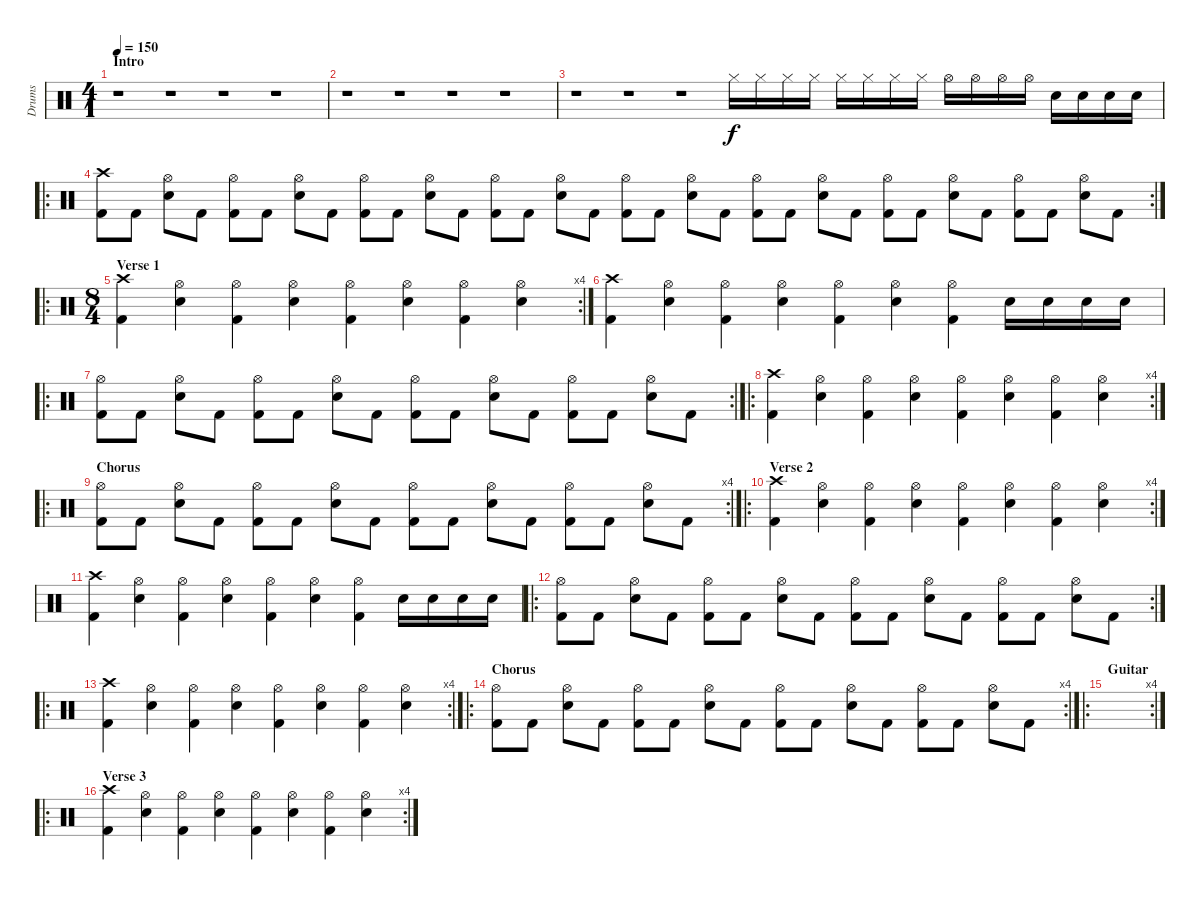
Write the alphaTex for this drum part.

\track ("Drums" "Drums") {instrument percussion}
\staff {score}
\articulation defaults
\ts (4 1)
\section ("" "Intro")
\tempo 150
\clef neutral
\ks c
r.1{dy f} r.1 r.1 r.1 |
r.1 r.1 r.1 r.1 |
r.1 r.1 r.1 "Hi-Hat (closed)".16 "Hi-Hat (closed)".16 "Hi-Hat (closed)".16 "Hi-Hat (closed)".16 "Hi-Hat (closed)".16 "Hi-Hat (closed)".16 "Hi-Hat (closed)".16 "Hi-Hat (closed)".16 "Hi-Hat (open)".16 "Hi-Hat (open)".16 "Hi-Hat (open)".16 "Hi-Hat (open)".16 "Electric Snare (hit)".16 "Electric Snare (hit)".16 "Electric Snare (hit)".16 "Electric Snare (hit)".16 |
\ro
\rc 2
("Crash high (hit)" "Kick (hit) 2").8 "Kick (hit) 2".8 ("Hi-Hat (open)" "Electric Snare (hit)").8 "Kick (hit) 2".8 ("Hi-Hat (open)" "Kick (hit) 2").8 "Kick (hit) 2".8 ("Hi-Hat (open)" "Electric Snare (hit)").8 "Kick (hit) 2".8 ("Hi-Hat (open)" "Kick (hit) 2").8 "Kick (hit) 2".8 ("Hi-Hat (open)" "Electric Snare (hit)").8 "Kick (hit) 2".8 ("Hi-Hat (open)" "Kick (hit) 2").8 "Kick (hit) 2".8 ("Hi-Hat (open)" "Electric Snare (hit)").8 "Kick (hit) 2".8 ("Hi-Hat (open)" "Kick (hit) 2").8 "Kick (hit) 2".8 ("Hi-Hat (open)" "Electric Snare (hit)").8 "Kick (hit) 2".8 ("Hi-Hat (open)" "Kick (hit) 2").8 "Kick (hit) 2".8 ("Hi-Hat (open)" "Electric Snare (hit)").8 "Kick (hit) 2".8 ("Hi-Hat (open)" "Kick (hit) 2").8 "Kick (hit) 2".8 ("Hi-Hat (open)" "Electric Snare (hit)").8 "Kick (hit) 2".8 ("Hi-Hat (open)" "Kick (hit) 2").8 "Kick (hit) 2".8 ("Hi-Hat (open)" "Electric Snare (hit)").8 "Kick (hit) 2".8 |
\ro
\rc 4
\ts (8 4)
\section ("" "Verse 1")
("Crash high (hit)" "Kick (hit) 2").4 ("Hi-Hat (open)" "Electric Snare (hit)").4 ("Hi-Hat (open)" "Kick (hit) 2").4 ("Hi-Hat (open)" "Electric Snare (hit)").4 ("Hi-Hat (open)" "Kick (hit) 2").4 ("Hi-Hat (open)" "Electric Snare (hit)").4 ("Hi-Hat (open)" "Kick (hit) 2").4 ("Hi-Hat (open)" "Electric Snare (hit)").4 |
("Crash high (hit)" "Kick (hit) 2").4 ("Hi-Hat (open)" "Electric Snare (hit)").4 ("Hi-Hat (open)" "Kick (hit) 2").4 ("Hi-Hat (open)" "Electric Snare (hit)").4 ("Hi-Hat (open)" "Kick (hit) 2").4 ("Hi-Hat (open)" "Electric Snare (hit)").4 ("Hi-Hat (open)" "Kick (hit) 2").4 "Electric Snare (hit)".16 "Electric Snare (hit)".16 "Electric Snare (hit)".16 "Electric Snare (hit)".16 |
\ro
\rc 2
("Hi-Hat (open)" "Kick (hit) 2").8 "Kick (hit) 2".8 ("Hi-Hat (open)" "Electric Snare (hit)").8 "Kick (hit) 2".8 ("Hi-Hat (open)" "Kick (hit) 2").8 "Kick (hit) 2".8 ("Hi-Hat (open)" "Electric Snare (hit)").8 "Kick (hit) 2".8 ("Hi-Hat (open)" "Kick (hit) 2").8 "Kick (hit) 2".8 ("Hi-Hat (open)" "Electric Snare (hit)").8 "Kick (hit) 2".8 ("Hi-Hat (open)" "Kick (hit) 2").8 "Kick (hit) 2".8 ("Hi-Hat (open)" "Electric Snare (hit)").8 "Kick (hit) 2".8 |
\ro
\rc 4
("Crash high (hit)" "Kick (hit) 2").4 ("Hi-Hat (open)" "Electric Snare (hit)").4 ("Hi-Hat (open)" "Kick (hit) 2").4 ("Hi-Hat (open)" "Electric Snare (hit)").4 ("Hi-Hat (open)" "Kick (hit) 2").4 ("Hi-Hat (open)" "Electric Snare (hit)").4 ("Hi-Hat (open)" "Kick (hit) 2").4 ("Hi-Hat (open)" "Electric Snare (hit)").4 |
\ro
\rc 4
\section ("" "Chorus")
("Hi-Hat (open)" "Kick (hit) 2").8 "Kick (hit) 2".8 ("Hi-Hat (open)" "Electric Snare (hit)").8 "Kick (hit) 2".8 ("Hi-Hat (open)" "Kick (hit) 2").8 "Kick (hit) 2".8 ("Hi-Hat (open)" "Electric Snare (hit)").8 "Kick (hit) 2".8 ("Hi-Hat (open)" "Kick (hit) 2").8 "Kick (hit) 2".8 ("Hi-Hat (open)" "Electric Snare (hit)").8 "Kick (hit) 2".8 ("Hi-Hat (open)" "Kick (hit) 2").8 "Kick (hit) 2".8 ("Hi-Hat (open)" "Electric Snare (hit)").8 "Kick (hit) 2".8 |
\ro
\rc 4
\section ("" "Verse 2")
("Crash high (hit)" "Kick (hit) 2").4 ("Hi-Hat (open)" "Electric Snare (hit)").4 ("Hi-Hat (open)" "Kick (hit) 2").4 ("Hi-Hat (open)" "Electric Snare (hit)").4 ("Hi-Hat (open)" "Kick (hit) 2").4 ("Hi-Hat (open)" "Electric Snare (hit)").4 ("Hi-Hat (open)" "Kick (hit) 2").4 ("Hi-Hat (open)" "Electric Snare (hit)").4 |
("Crash high (hit)" "Kick (hit) 2").4 ("Hi-Hat (open)" "Electric Snare (hit)").4 ("Hi-Hat (open)" "Kick (hit) 2").4 ("Hi-Hat (open)" "Electric Snare (hit)").4 ("Hi-Hat (open)" "Kick (hit) 2").4 ("Hi-Hat (open)" "Electric Snare (hit)").4 ("Hi-Hat (open)" "Kick (hit) 2").4 "Electric Snare (hit)".16 "Electric Snare (hit)".16 "Electric Snare (hit)".16 "Electric Snare (hit)".16 |
\ro
\rc 2
("Hi-Hat (open)" "Kick (hit) 2").8 "Kick (hit) 2".8 ("Hi-Hat (open)" "Electric Snare (hit)").8 "Kick (hit) 2".8 ("Hi-Hat (open)" "Kick (hit) 2").8 "Kick (hit) 2".8 ("Hi-Hat (open)" "Electric Snare (hit)").8 "Kick (hit) 2".8 ("Hi-Hat (open)" "Kick (hit) 2").8 "Kick (hit) 2".8 ("Hi-Hat (open)" "Electric Snare (hit)").8 "Kick (hit) 2".8 ("Hi-Hat (open)" "Kick (hit) 2").8 "Kick (hit) 2".8 ("Hi-Hat (open)" "Electric Snare (hit)").8 "Kick (hit) 2".8 |
\ro
\rc 4
("Crash high (hit)" "Kick (hit) 2").4 ("Hi-Hat (open)" "Electric Snare (hit)").4 ("Hi-Hat (open)" "Kick (hit) 2").4 ("Hi-Hat (open)" "Electric Snare (hit)").4 ("Hi-Hat (open)" "Kick (hit) 2").4 ("Hi-Hat (open)" "Electric Snare (hit)").4 ("Hi-Hat (open)" "Kick (hit) 2").4 ("Hi-Hat (open)" "Electric Snare (hit)").4 |
\ro
\rc 4
\section ("" "Chorus")
("Hi-Hat (open)" "Kick (hit) 2").8 "Kick (hit) 2".8 ("Hi-Hat (open)" "Electric Snare (hit)").8 "Kick (hit) 2".8 ("Hi-Hat (open)" "Kick (hit) 2").8 "Kick (hit) 2".8 ("Hi-Hat (open)" "Electric Snare (hit)").8 "Kick (hit) 2".8 ("Hi-Hat (open)" "Kick (hit) 2").8 "Kick (hit) 2".8 ("Hi-Hat (open)" "Electric Snare (hit)").8 "Kick (hit) 2".8 ("Hi-Hat (open)" "Kick (hit) 2").8 "Kick (hit) 2".8 ("Hi-Hat (open)" "Electric Snare (hit)").8 "Kick (hit) 2".8 |
\ro
\rc 4
\section ("" "Guitar")
|
\ro
\rc 4
\section ("" "Verse 3")
("Crash high (hit)" "Kick (hit) 2").4 ("Hi-Hat (open)" "Electric Snare (hit)").4 ("Hi-Hat (open)" "Kick (hit) 2").4 ("Hi-Hat (open)" "Electric Snare (hit)").4 ("Hi-Hat (open)" "Kick (hit) 2").4 ("Hi-Hat (open)" "Electric Snare (hit)").4 ("Hi-Hat (open)" "Kick (hit) 2").4 ("Hi-Hat (open)" "Electric Snare (hit)").4
